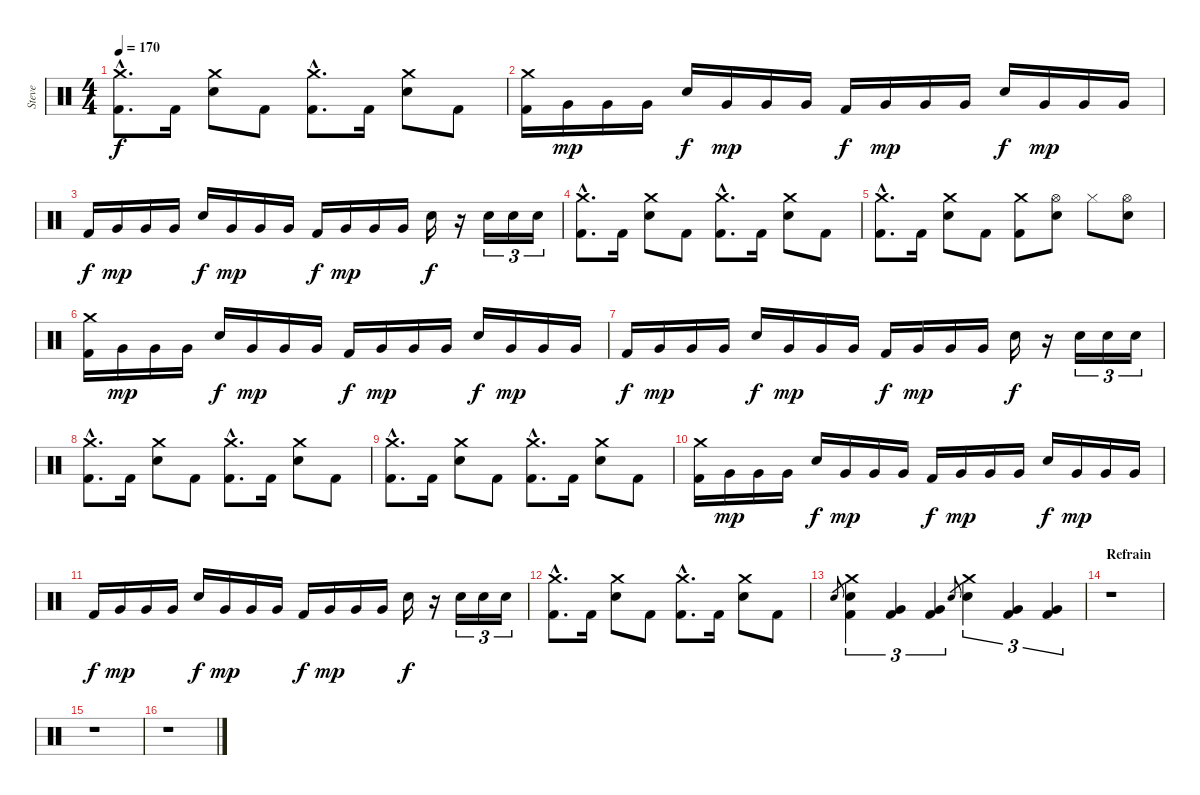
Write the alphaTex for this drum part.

\track ("Steve" "Steve") {instrument percussion}
\staff {score}
\articulation defaults
\ts (4 4)
\tempo 170
\clef neutral
\ks c
("Crash medium (hit)"{hac} "Kick (hit) 2"{hac}).8{d dy f} "Kick (hit) 2".16 ("Crash medium (hit)" "Electric Snare (hit)").8 "Kick (hit) 2".8 ("Crash medium (hit)"{hac} "Kick (hit) 2"{hac}).8{d} "Kick (hit) 2".16 ("Crash medium (hit)" "Electric Snare (hit)").8 "Kick (hit) 2".8 |
("Crash medium (hit)" "Kick (hit) 2").16 "Very Low Tom (hit)".16{dy mp} "Very Low Tom (hit)".16 "Very Low Tom (hit)".16 "Electric Snare (hit)".16{dy f} "Very Low Tom (hit)".16{dy mp} "Very Low Tom (hit)".16 "Very Low Tom (hit)".16 "Kick (hit) 2".16{dy f} "Very Low Tom (hit)".16{dy mp} "Very Low Tom (hit)".16 "Very Low Tom (hit)".16 "Electric Snare (hit)".16{dy f} "Very Low Tom (hit)".16{dy mp} "Very Low Tom (hit)".16 "Very Low Tom (hit)".16 |
"Kick (hit) 2".16{dy f} "Very Low Tom (hit)".16{dy mp} "Very Low Tom (hit)".16 "Very Low Tom (hit)".16 "Electric Snare (hit)".16{dy f} "Very Low Tom (hit)".16{dy mp} "Very Low Tom (hit)".16 "Very Low Tom (hit)".16 "Kick (hit) 2".16{dy f} "Very Low Tom (hit)".16{dy mp} "Very Low Tom (hit)".16 "Very Low Tom (hit)".16 "Electric Snare (hit)".16{dy f} r.16 "Electric Snare (hit)".16{tu (3 2)} "Electric Snare (hit)".16{tu (3 2)} "Electric Snare (hit)".16{tu (3 2)} |
("Crash medium (hit)"{hac} "Kick (hit) 2"{hac}).8{d} "Kick (hit) 2".16 ("Crash medium (hit)" "Electric Snare (hit)").8 "Kick (hit) 2".8 ("Crash medium (hit)"{hac} "Kick (hit) 2"{hac}).8{d} "Kick (hit) 2".16 ("Crash medium (hit)" "Electric Snare (hit)").8 "Kick (hit) 2".8 |
("Crash medium (hit)"{hac} "Kick (hit) 2"{hac}).8{d} "Kick (hit) 2".16 ("Crash medium (hit)" "Electric Snare (hit)").8 "Kick (hit) 2".8 ("Crash medium (hit)" "Kick (hit) 2").8 ("Hi-Hat (open)" "Electric Snare (hit)").8 "Hi-Hat (closed)".8 ("Hi-Hat (open)" "Electric Snare (hit)").8 |
("Crash medium (hit)" "Kick (hit) 2").16 "Very Low Tom (hit)".16{dy mp} "Very Low Tom (hit)".16 "Very Low Tom (hit)".16 "Electric Snare (hit)".16{dy f} "Very Low Tom (hit)".16{dy mp} "Very Low Tom (hit)".16 "Very Low Tom (hit)".16 "Kick (hit) 2".16{dy f} "Very Low Tom (hit)".16{dy mp} "Very Low Tom (hit)".16 "Very Low Tom (hit)".16 "Electric Snare (hit)".16{dy f} "Very Low Tom (hit)".16{dy mp} "Very Low Tom (hit)".16 "Very Low Tom (hit)".16 |
"Kick (hit) 2".16{dy f} "Very Low Tom (hit)".16{dy mp} "Very Low Tom (hit)".16 "Very Low Tom (hit)".16 "Electric Snare (hit)".16{dy f} "Very Low Tom (hit)".16{dy mp} "Very Low Tom (hit)".16 "Very Low Tom (hit)".16 "Kick (hit) 2".16{dy f} "Very Low Tom (hit)".16{dy mp} "Very Low Tom (hit)".16 "Very Low Tom (hit)".16 "Electric Snare (hit)".16{dy f} r.16 "Electric Snare (hit)".16{tu (3 2)} "Electric Snare (hit)".16{tu (3 2)} "Electric Snare (hit)".16{tu (3 2)} |
("Crash medium (hit)"{hac} "Kick (hit) 2"{hac}).8{d} "Kick (hit) 2".16 ("Crash medium (hit)" "Electric Snare (hit)").8 "Kick (hit) 2".8 ("Crash medium (hit)"{hac} "Kick (hit) 2"{hac}).8{d} "Kick (hit) 2".16 ("Crash medium (hit)" "Electric Snare (hit)").8 "Kick (hit) 2".8 |
("Crash medium (hit)"{hac} "Kick (hit) 2"{hac}).8{d} "Kick (hit) 2".16 ("Crash medium (hit)" "Electric Snare (hit)").8 "Kick (hit) 2".8 ("Crash medium (hit)"{hac} "Kick (hit) 2"{hac}).8{d} "Kick (hit) 2".16 ("Crash medium (hit)" "Electric Snare (hit)").8 "Kick (hit) 2".8 |
("Crash medium (hit)" "Kick (hit) 2").16 "Very Low Tom (hit)".16{dy mp} "Very Low Tom (hit)".16 "Very Low Tom (hit)".16 "Electric Snare (hit)".16{dy f} "Very Low Tom (hit)".16{dy mp} "Very Low Tom (hit)".16 "Very Low Tom (hit)".16 "Kick (hit) 2".16{dy f} "Very Low Tom (hit)".16{dy mp} "Very Low Tom (hit)".16 "Very Low Tom (hit)".16 "Electric Snare (hit)".16{dy f} "Very Low Tom (hit)".16{dy mp} "Very Low Tom (hit)".16 "Very Low Tom (hit)".16 |
"Kick (hit) 2".16{dy f} "Very Low Tom (hit)".16{dy mp} "Very Low Tom (hit)".16 "Very Low Tom (hit)".16 "Electric Snare (hit)".16{dy f} "Very Low Tom (hit)".16{dy mp} "Very Low Tom (hit)".16 "Very Low Tom (hit)".16 "Kick (hit) 2".16{dy f} "Very Low Tom (hit)".16{dy mp} "Very Low Tom (hit)".16 "Very Low Tom (hit)".16 "Electric Snare (hit)".16{dy f} r.16 "Electric Snare (hit)".16{tu (3 2)} "Electric Snare (hit)".16{tu (3 2)} "Electric Snare (hit)".16{tu (3 2)} |
("Crash medium (hit)"{hac} "Kick (hit) 2"{hac}).8{d} "Kick (hit) 2".16 ("Crash medium (hit)" "Electric Snare (hit)").8 "Kick (hit) 2".8 ("Crash medium (hit)"{hac} "Kick (hit) 2"{hac}).8{d} "Kick (hit) 2".16 ("Crash medium (hit)" "Electric Snare (hit)").8 "Kick (hit) 2".8 |
"Electric Snare (hit)".8{gr} ("Crash medium (hit)" "Electric Snare (hit)" "Kick (hit) 2").4{tu (3 2)} ("Very Low Tom (hit)" "Kick (hit) 2").4{tu (3 2)} ("Very Low Tom (hit)" "Kick (hit) 2").4{tu (3 2)} "Electric Snare (hit)".8{gr} ("Crash medium (hit)" "Electric Snare (hit)").4{tu (3 2)} ("Very Low Tom (hit)" "Kick (hit) 2").4{tu (3 2)} ("Very Low Tom (hit)" "Kick (hit) 2").4{tu (3 2)} |
\section ("" "Refrain")
r.1 |
r.1 |
r.1
